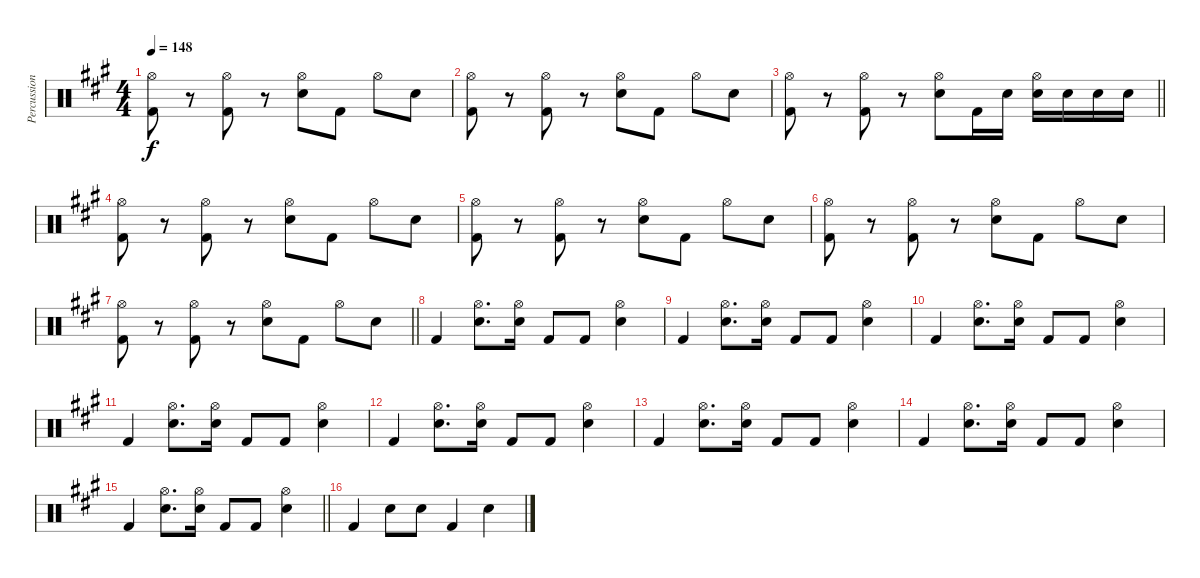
\track ("Percussion" "Percussion") {instrument percussion}
\staff {score}
\articulation defaults
\ts (4 4)
\tempo 148
\clef neutral
\ks a
("Hi-Hat (open)" "Kick (hit) 2").8{dy f} r.8 ("Hi-Hat (open)" "Kick (hit) 2").8 r.8 ("Hi-Hat (open)" "Electric Snare (hit)").8 "Kick (hit) 2".8 "Hi-Hat (open)".8 "Electric Snare (hit)".8 |
("Hi-Hat (open)" "Kick (hit) 2").8 r.8 ("Hi-Hat (open)" "Kick (hit) 2").8 r.8 ("Hi-Hat (open)" "Electric Snare (hit)").8 "Kick (hit) 2".8 "Hi-Hat (open)".8 "Electric Snare (hit)".8 |
\barLineRight lightlight
("Hi-Hat (open)" "Kick (hit) 2").8 r.8 ("Hi-Hat (open)" "Kick (hit) 2").8 r.8 ("Hi-Hat (open)" "Electric Snare (hit)").8 "Kick (hit) 2".16 "Electric Snare (hit)".16 ("Hi-Hat (open)" "Electric Snare (hit)").16 "Electric Snare (hit)".16 "Electric Snare (hit)".16 "Electric Snare (hit)".16 |
("Hi-Hat (open)" "Kick (hit) 2").8 r.8 ("Hi-Hat (open)" "Kick (hit) 2").8 r.8 ("Hi-Hat (open)" "Electric Snare (hit)").8 "Kick (hit) 2".8 "Hi-Hat (open)".8 "Electric Snare (hit)".8 |
("Hi-Hat (open)" "Kick (hit) 2").8 r.8 ("Hi-Hat (open)" "Kick (hit) 2").8 r.8 ("Hi-Hat (open)" "Electric Snare (hit)").8 "Kick (hit) 2".8 "Hi-Hat (open)".8 "Electric Snare (hit)".8 |
("Hi-Hat (open)" "Kick (hit) 2").8 r.8 ("Hi-Hat (open)" "Kick (hit) 2").8 r.8 ("Hi-Hat (open)" "Electric Snare (hit)").8 "Kick (hit) 2".8 "Hi-Hat (open)".8 "Electric Snare (hit)".8 |
\barLineRight lightlight
("Hi-Hat (open)" "Kick (hit) 2").8 r.8 ("Hi-Hat (open)" "Kick (hit) 2").8 r.8 ("Hi-Hat (open)" "Electric Snare (hit)").8 "Kick (hit) 2".8 "Hi-Hat (open)".8 "Electric Snare (hit)".8 |
"Kick (hit) 2".4 ("Hi-Hat (open)" "Electric Snare (hit)").8{d} ("Hi-Hat (open)" "Electric Snare (hit)").16 "Kick (hit) 2".8 "Kick (hit) 2".8 ("Hi-Hat (open)" "Electric Snare (hit)").4 |
"Kick (hit) 2".4 ("Hi-Hat (open)" "Electric Snare (hit)").8{d} ("Hi-Hat (open)" "Electric Snare (hit)").16 "Kick (hit) 2".8 "Kick (hit) 2".8 ("Hi-Hat (open)" "Electric Snare (hit)").4 |
"Kick (hit) 2".4 ("Hi-Hat (open)" "Electric Snare (hit)").8{d} ("Hi-Hat (open)" "Electric Snare (hit)").16 "Kick (hit) 2".8 "Kick (hit) 2".8 ("Hi-Hat (open)" "Electric Snare (hit)").4 |
"Kick (hit) 2".4 ("Hi-Hat (open)" "Electric Snare (hit)").8{d} ("Hi-Hat (open)" "Electric Snare (hit)").16 "Kick (hit) 2".8 "Kick (hit) 2".8 ("Hi-Hat (open)" "Electric Snare (hit)").4 |
"Kick (hit) 2".4 ("Hi-Hat (open)" "Electric Snare (hit)").8{d} ("Hi-Hat (open)" "Electric Snare (hit)").16 "Kick (hit) 2".8 "Kick (hit) 2".8 ("Hi-Hat (open)" "Electric Snare (hit)").4 |
"Kick (hit) 2".4 ("Hi-Hat (open)" "Electric Snare (hit)").8{d} ("Hi-Hat (open)" "Electric Snare (hit)").16 "Kick (hit) 2".8 "Kick (hit) 2".8 ("Hi-Hat (open)" "Electric Snare (hit)").4 |
"Kick (hit) 2".4 ("Hi-Hat (open)" "Electric Snare (hit)").8{d} ("Hi-Hat (open)" "Electric Snare (hit)").16 "Kick (hit) 2".8 "Kick (hit) 2".8 ("Hi-Hat (open)" "Electric Snare (hit)").4 |
\barLineRight lightlight "Kick (hit) 2".4
("Hi-Hat (open)" "Electric Snare (hit)").8{d} ("Hi-Hat (open)" "Electric Snare (hit)").16 "Kick (hit) 2".8 "Kick (hit) 2".8 ("Hi-Hat (open)" "Electric Snare (hit)").4 |
"Kick (hit) 2".4 "Electric Snare (hit)".8 "Electric Snare (hit)".8 "Kick (hit) 2".4 "Electric Snare (hit)".4
